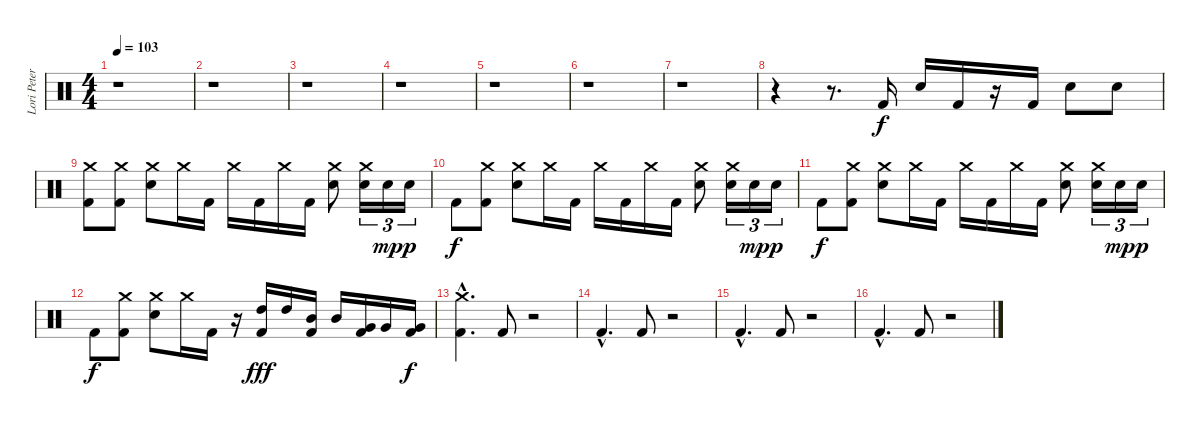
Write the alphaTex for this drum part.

\track ("Lori Peters - Drums" "Lori Peter") {instrument percussion}
\staff {score}
\articulation defaults
\ts (4 4)
\tempo 103
\clef neutral
\ks c
r.1{dy f} |
r.1 |
r.1 |
r.1 |
r.1 |
r.1 |
r.1 |
r.4 r.8{d} "Kick (hit) 2".16 "Snare (hit) 2".16 "Kick (hit) 2".16 r.16 "Kick (hit) 2".16 "Snare (hit) 2".8 "Snare (hit) 2".8 |
("Crash medium (hit)" "Kick (hit) 2").8 ("Crash medium (hit)" "Kick (hit) 2").8 ("Crash medium (hit)" "Snare (hit) 2").8 "Crash medium (hit)".16 "Kick (hit) 2".16 "Crash medium (hit)".16 "Kick (hit) 2".16 "Crash medium (hit)".16 "Kick (hit) 2".16 ("Crash medium (hit)" "Snare (hit) 2").8 ("Crash medium (hit)" "Snare (hit) 2").16{tu (3 2)} "Snare (hit) 2".16{tu (3 2) dy mp} "Snare (hit) 2".16{tu (3 2) dy p} |
"Kick (hit) 2".8{dy f} ("Crash medium (hit)" "Kick (hit) 2").8 ("Crash medium (hit)" "Snare (hit) 2").8 "Crash medium (hit)".16 "Kick (hit) 2".16 "Crash medium (hit)".16 "Kick (hit) 2".16 "Crash medium (hit)".16 "Kick (hit) 2".16 ("Crash medium (hit)" "Snare (hit) 2").8 ("Crash medium (hit)" "Snare (hit) 2").16{tu (3 2)} "Snare (hit) 2".16{tu (3 2) dy mp} "Snare (hit) 2".16{tu (3 2) dy p} |
"Kick (hit) 2".8{dy f} ("Crash medium (hit)" "Kick (hit) 2").8 ("Crash medium (hit)" "Snare (hit) 2").8 "Crash medium (hit)".16 "Kick (hit) 2".16 "Crash medium (hit)".16 "Kick (hit) 2".16 "Crash medium (hit)".16 "Kick (hit) 2".16 ("Crash medium (hit)" "Snare (hit) 2").8 ("Crash medium (hit)" "Snare (hit) 2").16{tu (3 2)} "Snare (hit) 2".16{tu (3 2) dy mp} "Snare (hit) 2".16{tu (3 2) dy p} |
"Kick (hit) 2".8{dy f} ("Crash medium (hit)" "Kick (hit) 2").8 ("Crash medium (hit)" "Snare (hit) 2").8 "Crash medium (hit)".16 "Kick (hit) 2".16 r.16 ("High Tom (hit)" "Kick (hit) 2").16{dy fff} "High Tom (hit)".16 ("Mid Tom (hit)" "Kick (hit) 2").16 "Mid Tom (hit)".16 ("Very Low Tom (hit)" "Kick (hit) 2").16 "Very Low Tom (hit)".16 ("Very Low Tom (hit)" "Kick (hit) 2").16{dy f} |
("Crash medium (hit)"{hac} "Kick (hit) 2"{hac}).4{d} "Kick (hit) 2".8 r.2 |
"Kick (hit) 2"{hac}.4{d} "Kick (hit) 2".8 r.2 |
"Kick (hit) 2"{hac}.4{d} "Kick (hit) 2".8 r.2 |
"Kick (hit) 2"{hac}.4{d} "Kick (hit) 2".8 r.2
